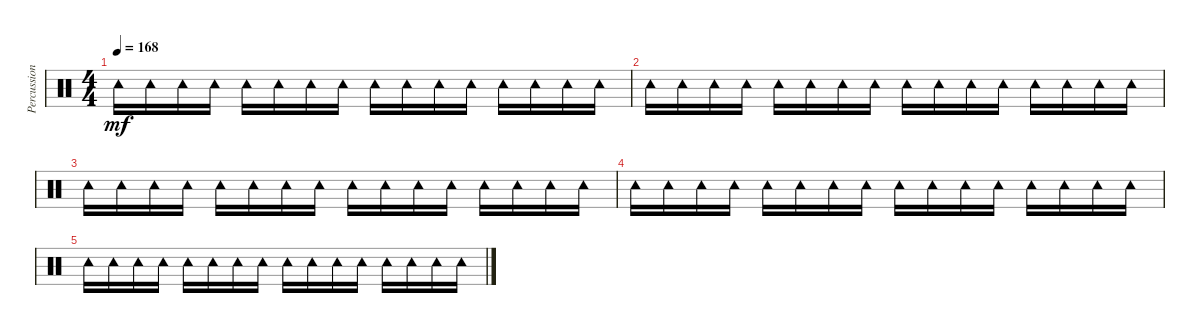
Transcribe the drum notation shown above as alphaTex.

\track ("Percussion" "Percussion") {instrument percussion}
\staff {score}
\articulation defaults
\ts (4 4)
\tempo 168
\clef neutral
\ks c "Tambourine (hit)".16{dy mf} "Tambourine (hit)".16 "Tambourine (hit)".16 "Tambourine (hit)".16 "Tambourine (hit)".16 "Tambourine (hit)".16 "Tambourine (hit)".16 "Tambourine (hit)".16 "Tambourine (hit)".16 "Tambourine (hit)".16 "Tambourine (hit)".16 "Tambourine (hit)".16 "Tambourine (hit)".16 "Tambourine (hit)".16 "Tambourine (hit)".16 "Tambourine (hit)".16
|
"Tambourine (hit)".16 "Tambourine (hit)".16 "Tambourine (hit)".16 "Tambourine (hit)".16 "Tambourine (hit)".16 "Tambourine (hit)".16 "Tambourine (hit)".16 "Tambourine (hit)".16 "Tambourine (hit)".16 "Tambourine (hit)".16 "Tambourine (hit)".16 "Tambourine (hit)".16 "Tambourine (hit)".16 "Tambourine (hit)".16 "Tambourine (hit)".16 "Tambourine (hit)".16 |
"Tambourine (hit)".16 "Tambourine (hit)".16 "Tambourine (hit)".16 "Tambourine (hit)".16 "Tambourine (hit)".16 "Tambourine (hit)".16 "Tambourine (hit)".16 "Tambourine (hit)".16 "Tambourine (hit)".16 "Tambourine (hit)".16 "Tambourine (hit)".16 "Tambourine (hit)".16 "Tambourine (hit)".16 "Tambourine (hit)".16 "Tambourine (hit)".16 "Tambourine (hit)".16 |
"Tambourine (hit)".16 "Tambourine (hit)".16 "Tambourine (hit)".16 "Tambourine (hit)".16 "Tambourine (hit)".16 "Tambourine (hit)".16 "Tambourine (hit)".16 "Tambourine (hit)".16 "Tambourine (hit)".16 "Tambourine (hit)".16 "Tambourine (hit)".16 "Tambourine (hit)".16 "Tambourine (hit)".16 "Tambourine (hit)".16 "Tambourine (hit)".16 "Tambourine (hit)".16 |
"Tambourine (hit)".16 "Tambourine (hit)".16 "Tambourine (hit)".16 "Tambourine (hit)".16 "Tambourine (hit)".16 "Tambourine (hit)".16 "Tambourine (hit)".16 "Tambourine (hit)".16 "Tambourine (hit)".16 "Tambourine (hit)".16 "Tambourine (hit)".16 "Tambourine (hit)".16 "Tambourine (hit)".16 "Tambourine (hit)".16 "Tambourine (hit)".16 "Tambourine (hit)".16
